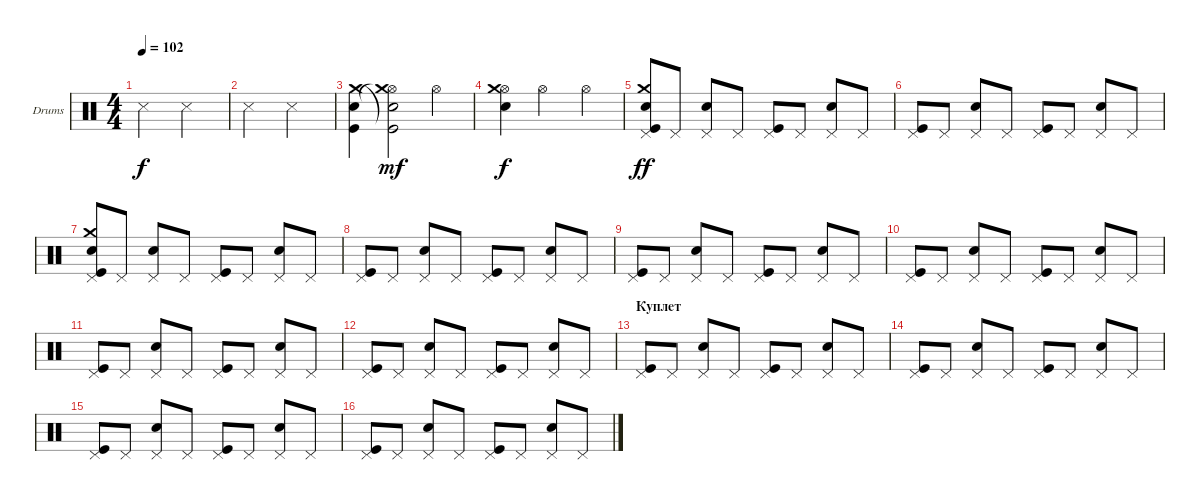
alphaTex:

\defaultSystemsLayout 4
\bracketExtendMode groupsimilarinstruments
\firstSystemTrackNameOrientation horizontal
\otherSystemsTrackNameOrientation horizontal
\track ("Е. Кулаков" "Drums") {instrument percussion}
\staff {score}
\articulation defaults
\ts (4 4)
\tempo 102
\clef neutral
\ks c "Snare (side stick) 3".2{dy f} "Snare (side stick) 3".2
|
"Snare (side stick) 3".2 "Snare (side stick) 3".2 |
("Kick (hit)" "Snare (hit) 2" "Crash medium (hit)").4 ("Hi-Hat (open)" "Crash medium (hit)"{t} "Kick (hit)"{t} "Snare (hit) 2").2{dy mf} "Hi-Hat (open)".4 |
("Hi-Hat (open)" "Crash medium (hit)" "Snare (hit) 2").4{dy f} "Hi-Hat (open)".2 "Hi-Hat (open)".4 |
("Pedal Hi-Hat (hit)" "Kick (hit)" "Crash medium (hit)" "Snare (hit) 2").8{dy ff} "Pedal Hi-Hat (hit)".8 ("Pedal Hi-Hat (hit)" "Snare (hit) 2").8 "Pedal Hi-Hat (hit)".8 ("Pedal Hi-Hat (hit)" "Kick (hit)").8 "Pedal Hi-Hat (hit)".8 ("Pedal Hi-Hat (hit)" "Snare (hit) 2").8 "Pedal Hi-Hat (hit)".8 |
("Pedal Hi-Hat (hit)" "Kick (hit)").8 "Pedal Hi-Hat (hit)".8 ("Pedal Hi-Hat (hit)" "Snare (hit) 2").8 "Pedal Hi-Hat (hit)".8 ("Pedal Hi-Hat (hit)" "Kick (hit)").8 "Pedal Hi-Hat (hit)".8 ("Pedal Hi-Hat (hit)" "Snare (hit) 2").8 "Pedal Hi-Hat (hit)".8 |
("Pedal Hi-Hat (hit)" "Kick (hit)" "Snare (hit) 2" "Crash medium (hit)").8 "Pedal Hi-Hat (hit)".8 ("Pedal Hi-Hat (hit)" "Snare (hit) 2").8 "Pedal Hi-Hat (hit)".8 ("Pedal Hi-Hat (hit)" "Kick (hit)").8 "Pedal Hi-Hat (hit)".8 ("Pedal Hi-Hat (hit)" "Snare (hit) 2").8 "Pedal Hi-Hat (hit)".8 |
("Pedal Hi-Hat (hit)" "Kick (hit)").8 "Pedal Hi-Hat (hit)".8 ("Pedal Hi-Hat (hit)" "Snare (hit) 2").8 "Pedal Hi-Hat (hit)".8 ("Pedal Hi-Hat (hit)" "Kick (hit)").8 "Pedal Hi-Hat (hit)".8 ("Pedal Hi-Hat (hit)" "Snare (hit) 2").8 "Pedal Hi-Hat (hit)".8 |
("Pedal Hi-Hat (hit)" "Kick (hit)").8 "Pedal Hi-Hat (hit)".8 ("Pedal Hi-Hat (hit)" "Snare (hit) 2").8 "Pedal Hi-Hat (hit)".8 ("Pedal Hi-Hat (hit)" "Kick (hit)").8 "Pedal Hi-Hat (hit)".8 ("Pedal Hi-Hat (hit)" "Snare (hit) 2").8 "Pedal Hi-Hat (hit)".8 |
("Pedal Hi-Hat (hit)" "Kick (hit)").8 "Pedal Hi-Hat (hit)".8 ("Pedal Hi-Hat (hit)" "Snare (hit) 2").8 "Pedal Hi-Hat (hit)".8 ("Pedal Hi-Hat (hit)" "Kick (hit)").8 "Pedal Hi-Hat (hit)".8 ("Pedal Hi-Hat (hit)" "Snare (hit) 2").8 "Pedal Hi-Hat (hit)".8 |
("Pedal Hi-Hat (hit)" "Kick (hit)").8 "Pedal Hi-Hat (hit)".8 ("Pedal Hi-Hat (hit)" "Snare (hit) 2").8 "Pedal Hi-Hat (hit)".8 ("Pedal Hi-Hat (hit)" "Kick (hit)").8 "Pedal Hi-Hat (hit)".8 ("Pedal Hi-Hat (hit)" "Snare (hit) 2").8 "Pedal Hi-Hat (hit)".8 |
("Pedal Hi-Hat (hit)" "Kick (hit)").8 "Pedal Hi-Hat (hit)".8 ("Pedal Hi-Hat (hit)" "Snare (hit) 2").8 "Pedal Hi-Hat (hit)".8 ("Pedal Hi-Hat (hit)" "Kick (hit)").8 "Pedal Hi-Hat (hit)".8 ("Pedal Hi-Hat (hit)" "Snare (hit) 2").8 "Pedal Hi-Hat (hit)".8 |
\section ("" "Куплет")
("Pedal Hi-Hat (hit)" "Kick (hit)").8 "Pedal Hi-Hat (hit)".8 ("Pedal Hi-Hat (hit)" "Snare (hit) 2").8 "Pedal Hi-Hat (hit)".8 ("Pedal Hi-Hat (hit)" "Kick (hit)").8 "Pedal Hi-Hat (hit)".8 ("Pedal Hi-Hat (hit)" "Snare (hit) 2").8 "Pedal Hi-Hat (hit)".8 |
("Pedal Hi-Hat (hit)" "Kick (hit)").8 "Pedal Hi-Hat (hit)".8 ("Pedal Hi-Hat (hit)" "Snare (hit) 2").8 "Pedal Hi-Hat (hit)".8 ("Pedal Hi-Hat (hit)" "Kick (hit)").8 "Pedal Hi-Hat (hit)".8 ("Pedal Hi-Hat (hit)" "Snare (hit) 2").8 "Pedal Hi-Hat (hit)".8 |
("Pedal Hi-Hat (hit)" "Kick (hit)").8 "Pedal Hi-Hat (hit)".8 ("Pedal Hi-Hat (hit)" "Snare (hit) 2").8 "Pedal Hi-Hat (hit)".8 ("Pedal Hi-Hat (hit)" "Kick (hit)").8 "Pedal Hi-Hat (hit)".8 ("Pedal Hi-Hat (hit)" "Snare (hit) 2").8 "Pedal Hi-Hat (hit)".8 |
("Pedal Hi-Hat (hit)" "Kick (hit)").8 "Pedal Hi-Hat (hit)".8 ("Pedal Hi-Hat (hit)" "Snare (hit) 2").8 "Pedal Hi-Hat (hit)".8 ("Pedal Hi-Hat (hit)" "Kick (hit)").8 "Pedal Hi-Hat (hit)".8 ("Pedal Hi-Hat (hit)" "Snare (hit) 2").8 "Pedal Hi-Hat (hit)".8
